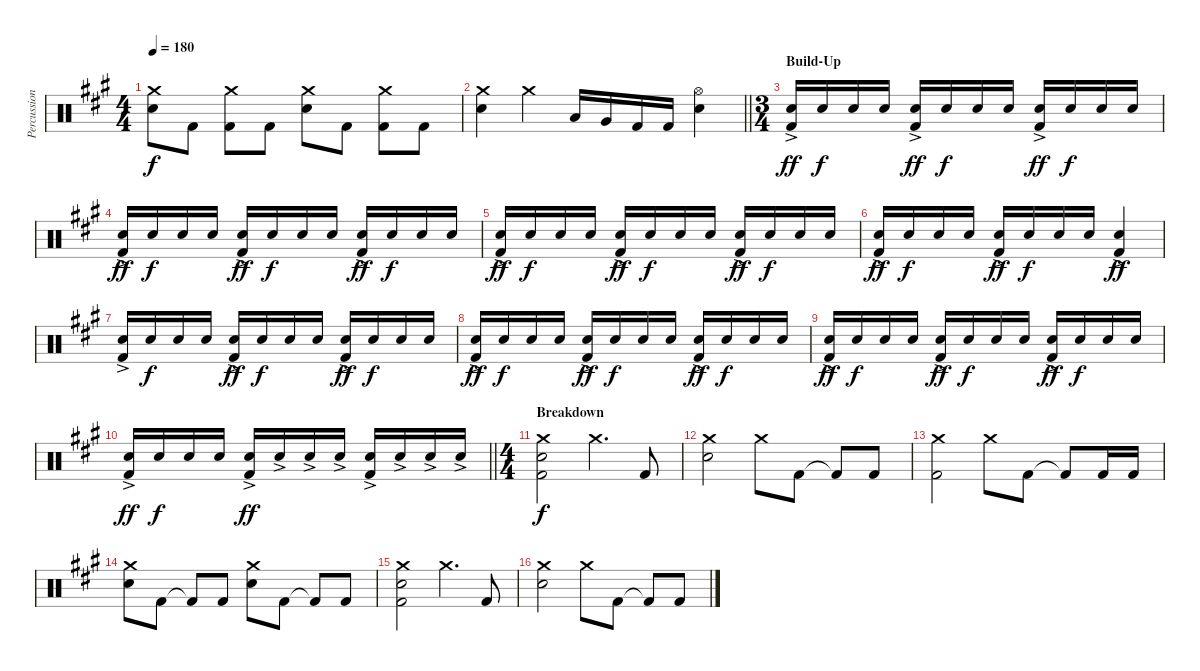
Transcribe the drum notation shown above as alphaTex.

\track ("Percussion" "Percussion") {instrument percussion}
\staff {score}
\articulation defaults
\ts (4 4)
\tempo 180
\clef neutral
\ks f#minor
("Crash medium (hit)" "Electric Snare (hit)").8{dy f} "Kick (hit) 2".8 ("Crash medium (hit)" "Kick (hit) 2").8 "Kick (hit) 2".8 ("Crash medium (hit)" "Electric Snare (hit)").8 "Kick (hit) 2".8 ("Crash medium (hit)" "Kick (hit) 2").8 "Kick (hit) 2".8 |
\barLineRight lightlight
("Crash medium (hit)" "Electric Snare (hit)").4 "Crash medium (hit)".4 "Low Tom (hit)".16 "Very Low Tom (hit)".16 "Kick (hit) 2".16 "Kick (hit) 2".16 ("Hi-Hat (open)" "Electric Snare (hit)").4 |
\ts (3 4)
\section ("" "Build-Up")
("Electric Snare (hit)"{ac} "Kick (hit) 2").16{dy ff} "Electric Snare (hit)".16{dy f} "Electric Snare (hit)".16 "Electric Snare (hit)".16 ("Electric Snare (hit)"{ac} "Kick (hit) 2").16{dy ff} "Electric Snare (hit)".16{dy f} "Electric Snare (hit)".16 "Electric Snare (hit)".16 ("Electric Snare (hit)"{ac} "Kick (hit) 2").16{dy ff} "Electric Snare (hit)".16{dy f} "Electric Snare (hit)".16 "Electric Snare (hit)".16 |
("Electric Snare (hit)"{ac} "Kick (hit) 2").16{dy ff} "Electric Snare (hit)".16{dy f} "Electric Snare (hit)".16 "Electric Snare (hit)".16 ("Electric Snare (hit)"{ac} "Kick (hit) 2").16{dy ff} "Electric Snare (hit)".16{dy f} "Electric Snare (hit)".16 "Electric Snare (hit)".16 ("Electric Snare (hit)"{ac} "Kick (hit) 2").16{dy ff} "Electric Snare (hit)".16{dy f} "Electric Snare (hit)".16 "Electric Snare (hit)".16 |
("Electric Snare (hit)"{ac} "Kick (hit) 2").16{dy ff} "Electric Snare (hit)".16{dy f} "Electric Snare (hit)".16 "Electric Snare (hit)".16 ("Electric Snare (hit)"{ac} "Kick (hit) 2").16{dy ff} "Electric Snare (hit)".16{dy f} "Electric Snare (hit)".16 "Electric Snare (hit)".16 ("Electric Snare (hit)"{ac} "Kick (hit) 2").16{dy ff} "Electric Snare (hit)".16{dy f} "Electric Snare (hit)".16 "Electric Snare (hit)".16 |
("Electric Snare (hit)"{ac} "Kick (hit) 2").16{dy ff} "Electric Snare (hit)".16{dy f} "Electric Snare (hit)".16 "Electric Snare (hit)".16 ("Electric Snare (hit)"{ac} "Kick (hit) 2").16{dy ff} "Electric Snare (hit)".16{dy f} "Electric Snare (hit)".16 "Electric Snare (hit)".16 ("Electric Snare (hit)"{ac} "Kick (hit) 2").4{dy ff} |
("Electric Snare (hit)"{ac} "Kick (hit) 2").16 "Electric Snare (hit)".16{dy f} "Electric Snare (hit)".16 "Electric Snare (hit)".16 ("Electric Snare (hit)"{ac} "Kick (hit) 2").16{dy ff} "Electric Snare (hit)".16{dy f} "Electric Snare (hit)".16 "Electric Snare (hit)".16 ("Electric Snare (hit)"{ac} "Kick (hit) 2").16{dy ff} "Electric Snare (hit)".16{dy f} "Electric Snare (hit)".16 "Electric Snare (hit)".16 |
("Electric Snare (hit)"{ac} "Kick (hit) 2").16{dy ff} "Electric Snare (hit)".16{dy f} "Electric Snare (hit)".16 "Electric Snare (hit)".16 ("Electric Snare (hit)"{ac} "Kick (hit) 2").16{dy ff} "Electric Snare (hit)".16{dy f} "Electric Snare (hit)".16 "Electric Snare (hit)".16 ("Electric Snare (hit)"{ac} "Kick (hit) 2").16{dy ff} "Electric Snare (hit)".16{dy f} "Electric Snare (hit)".16 "Electric Snare (hit)".16 |
("Electric Snare (hit)"{ac} "Kick (hit) 2").16{dy ff} "Electric Snare (hit)".16{dy f} "Electric Snare (hit)".16 "Electric Snare (hit)".16 ("Electric Snare (hit)"{ac} "Kick (hit) 2").16{dy ff} "Electric Snare (hit)".16{dy f} "Electric Snare (hit)".16 "Electric Snare (hit)".16 ("Electric Snare (hit)"{ac} "Kick (hit) 2").16{dy ff} "Electric Snare (hit)".16{dy f} "Electric Snare (hit)".16 "Electric Snare (hit)".16 |
\barLineRight lightlight
("Electric Snare (hit)"{ac} "Kick (hit) 2").16{dy ff} "Electric Snare (hit)".16{dy f} "Electric Snare (hit)".16 "Electric Snare (hit)".16 ("Electric Snare (hit)"{ac} "Kick (hit) 2").16{dy ff} "Electric Snare (hit)"{ac}.16 "Electric Snare (hit)"{ac}.16 "Electric Snare (hit)"{ac}.16 ("Electric Snare (hit)"{ac} "Kick (hit) 2").16 "Electric Snare (hit)"{ac}.16 "Electric Snare (hit)"{ac}.16 "Electric Snare (hit)"{ac}.16 |
\ts (4 4)
\section ("" "Breakdown")
("Crash medium (hit)" "Electric Snare (hit)" "Kick (hit) 2").2{dy f} "Crash medium (hit)".4{d} "Kick (hit) 2".8 |
("Crash medium (hit)" "Electric Snare (hit)").2 "Crash medium (hit)".8 "Kick (hit) 2".8 "Kick (hit) 2"{t}.8 "Kick (hit) 2".8 |
("Crash medium (hit)" "Kick (hit) 2").2 "Crash medium (hit)".8 "Kick (hit) 2".8 "Kick (hit) 2"{t}.8 "Kick (hit) 2".16 "Kick (hit) 2".16 |
("Crash medium (hit)" "Electric Snare (hit)").8 "Kick (hit) 2".8 "Kick (hit) 2"{t}.8 "Kick (hit) 2".8 ("Crash medium (hit)" "Electric Snare (hit)").8 "Kick (hit) 2".8 "Kick (hit) 2"{t}.8 "Kick (hit) 2".8 |
("Crash medium (hit)" "Electric Snare (hit)" "Kick (hit) 2").2 "Crash medium (hit)".4{d} "Kick (hit) 2".8 |
("Crash medium (hit)" "Electric Snare (hit)").2 "Crash medium (hit)".8 "Kick (hit) 2".8 "Kick (hit) 2"{t}.8 "Kick (hit) 2".8
